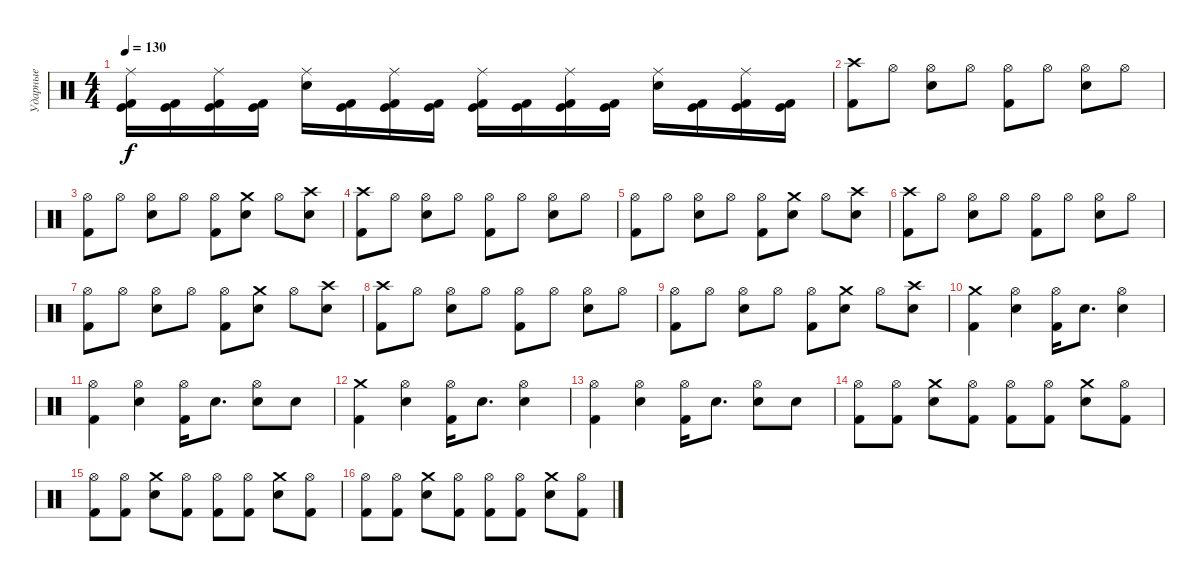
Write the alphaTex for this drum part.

\track ("Ударные" "Ударные") {instrument percussion}
\staff {score}
\articulation defaults
\ts (4 4)
\tempo 130
\clef neutral
\ks c
("Ride (middle)" "Kick (hit) 2" "Kick (hit)").16{dy f} ("Kick (hit) 2" "Kick (hit)").16 ("Ride (middle)" "Kick (hit) 2" "Kick (hit)").16 ("Kick (hit) 2" "Kick (hit)").16 ("Ride (middle)" "Electric Snare (hit)").16 ("Kick (hit) 2" "Kick (hit)").16 ("Ride (middle)" "Kick (hit) 2" "Kick (hit)").16 ("Kick (hit) 2" "Kick (hit)").16 ("Ride (middle)" "Kick (hit) 2" "Kick (hit)").16 ("Kick (hit) 2" "Kick (hit)").16 ("Ride (middle)" "Kick (hit) 2" "Kick (hit)").16 ("Kick (hit) 2" "Kick (hit)").16 ("Ride (middle)" "Electric Snare (hit)").16 ("Kick (hit) 2" "Kick (hit)").16 ("Ride (middle)" "Kick (hit) 2" "Kick (hit)").16 ("Kick (hit) 2" "Kick (hit)").16 |
("Crash high (hit)" "Kick (hit) 2").8 "Hi-Hat (open)".8 ("Hi-Hat (open)" "Electric Snare (hit)").8 "Hi-Hat (open)".8 ("Hi-Hat (open)" "Kick (hit) 2").8 "Hi-Hat (open)".8 ("Hi-Hat (open)" "Electric Snare (hit)").8 "Hi-Hat (open)".8 |
("Hi-Hat (open)" "Kick (hit) 2").8 "Hi-Hat (open)".8 ("Hi-Hat (open)" "Electric Snare (hit)").8 "Hi-Hat (open)".8 ("Hi-Hat (open)" "Kick (hit) 2").8 ("Crash medium (hit)" "Electric Snare (hit)").8 "Hi-Hat (open)".8 ("Crash high (hit)" "Electric Snare (hit)").8 |
("Crash high (hit)" "Kick (hit) 2").8 "Hi-Hat (open)".8 ("Hi-Hat (open)" "Electric Snare (hit)").8 "Hi-Hat (open)".8 ("Hi-Hat (open)" "Kick (hit) 2").8 "Hi-Hat (open)".8 ("Hi-Hat (open)" "Electric Snare (hit)").8 "Hi-Hat (open)".8 |
("Hi-Hat (open)" "Kick (hit) 2").8 "Hi-Hat (open)".8 ("Hi-Hat (open)" "Electric Snare (hit)").8 "Hi-Hat (open)".8 ("Hi-Hat (open)" "Kick (hit) 2").8 ("Crash medium (hit)" "Electric Snare (hit)").8 "Hi-Hat (open)".8 ("Crash high (hit)" "Electric Snare (hit)").8 |
("Crash high (hit)" "Kick (hit) 2").8 "Hi-Hat (open)".8 ("Hi-Hat (open)" "Electric Snare (hit)").8 "Hi-Hat (open)".8 ("Hi-Hat (open)" "Kick (hit) 2").8 "Hi-Hat (open)".8 ("Hi-Hat (open)" "Electric Snare (hit)").8 "Hi-Hat (open)".8 |
("Hi-Hat (open)" "Kick (hit) 2").8 "Hi-Hat (open)".8 ("Hi-Hat (open)" "Electric Snare (hit)").8 "Hi-Hat (open)".8 ("Hi-Hat (open)" "Kick (hit) 2").8 ("Crash medium (hit)" "Electric Snare (hit)").8 "Hi-Hat (open)".8 ("Crash high (hit)" "Electric Snare (hit)").8 |
("Crash high (hit)" "Kick (hit) 2").8 "Hi-Hat (open)".8 ("Hi-Hat (open)" "Electric Snare (hit)").8 "Hi-Hat (open)".8 ("Hi-Hat (open)" "Kick (hit) 2").8 "Hi-Hat (open)".8 ("Hi-Hat (open)" "Electric Snare (hit)").8 "Hi-Hat (open)".8 |
("Hi-Hat (open)" "Kick (hit) 2").8 "Hi-Hat (open)".8 ("Hi-Hat (open)" "Electric Snare (hit)").8 "Hi-Hat (open)".8 ("Hi-Hat (open)" "Kick (hit) 2").8 ("Crash medium (hit)" "Electric Snare (hit)").8 "Hi-Hat (open)".8 ("Crash high (hit)" "Electric Snare (hit)").8 |
("Crash medium (hit)" "Kick (hit) 2").4 ("Hi-Hat (open)" "Electric Snare (hit)").4 ("Hi-Hat (open)" "Kick (hit) 2").16 "Electric Snare (hit)".8{d} ("Hi-Hat (open)" "Electric Snare (hit)").4 |
("Hi-Hat (open)" "Kick (hit) 2").4 ("Hi-Hat (open)" "Electric Snare (hit)").4 ("Hi-Hat (open)" "Kick (hit) 2").16 "Electric Snare (hit)".8{d} ("Hi-Hat (open)" "Electric Snare (hit)").8 "Electric Snare (hit)".8 |
("Crash medium (hit)" "Kick (hit) 2").4 ("Hi-Hat (open)" "Electric Snare (hit)").4 ("Hi-Hat (open)" "Kick (hit) 2").16 "Electric Snare (hit)".8{d} ("Hi-Hat (open)" "Electric Snare (hit)").4 |
("Hi-Hat (open)" "Kick (hit) 2").4 ("Hi-Hat (open)" "Electric Snare (hit)").4 ("Hi-Hat (open)" "Kick (hit) 2").16 "Electric Snare (hit)".8{d} ("Hi-Hat (open)" "Electric Snare (hit)").8 "Electric Snare (hit)".8 |
("Hi-Hat (open)" "Kick (hit) 2").8 ("Hi-Hat (open)" "Kick (hit) 2").8 ("Crash medium (hit)" "Electric Snare (hit)").8 ("Hi-Hat (open)" "Kick (hit) 2").8 ("Hi-Hat (open)" "Kick (hit) 2").8 ("Hi-Hat (open)" "Kick (hit) 2").8 ("Crash medium (hit)" "Electric Snare (hit)").8 ("Hi-Hat (open)" "Kick (hit) 2").8 |
("Hi-Hat (open)" "Kick (hit) 2").8 ("Hi-Hat (open)" "Kick (hit) 2").8 ("Crash medium (hit)" "Electric Snare (hit)").8 ("Hi-Hat (open)" "Kick (hit) 2").8 ("Hi-Hat (open)" "Kick (hit) 2").8 ("Hi-Hat (open)" "Kick (hit) 2").8 ("Crash medium (hit)" "Electric Snare (hit)").8 ("Hi-Hat (open)" "Kick (hit) 2").8 |
("Hi-Hat (open)" "Kick (hit) 2").8 ("Hi-Hat (open)" "Kick (hit) 2").8 ("Crash medium (hit)" "Electric Snare (hit)").8 ("Hi-Hat (open)" "Kick (hit) 2").8 ("Hi-Hat (open)" "Kick (hit) 2").8 ("Hi-Hat (open)" "Kick (hit) 2").8 ("Crash medium (hit)" "Electric Snare (hit)").8 ("Hi-Hat (open)" "Kick (hit) 2").8
